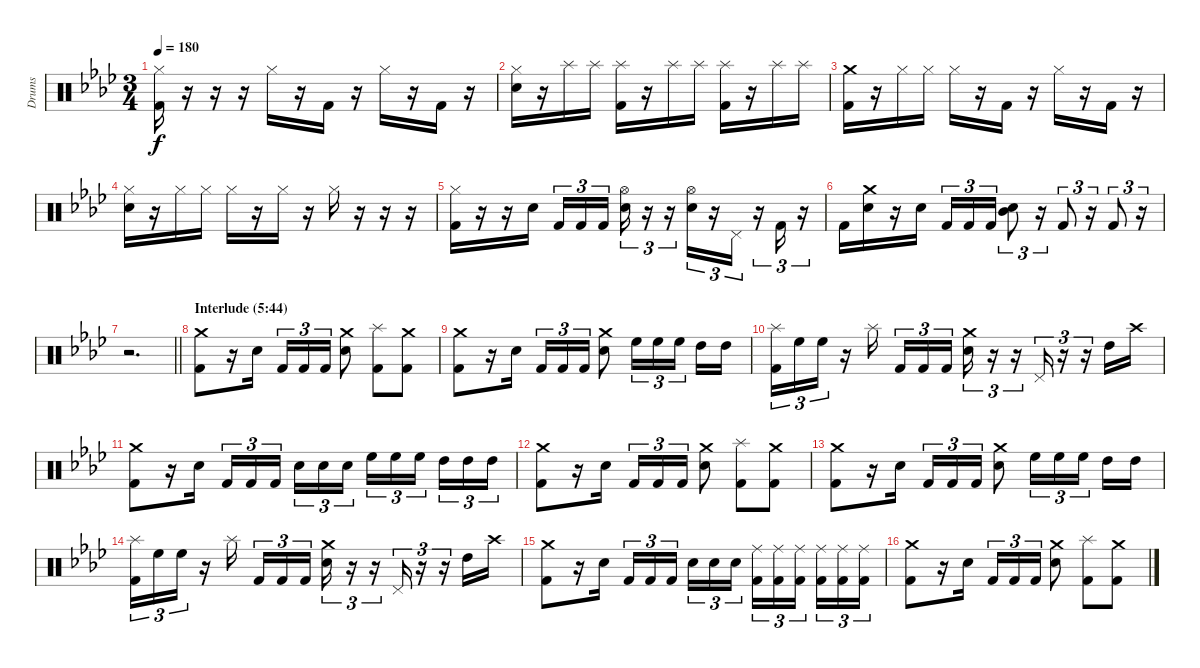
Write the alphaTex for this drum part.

\bracketExtendMode groupsimilarinstruments
\otherSystemsTrackNameOrientation horizontal
\track ("Guyot Begin-Benoit" "Drums") {instrument percussion}
\staff {score}
\articulation defaults
\ts (3 4)
\tempo 180
\clef neutral
\ks ab
("Hi-Hat (closed)"{acc forcenatural} "Kick (hit) 2"{acc forcenatural}).16{dy f beam Down} r.16{beam Down} r.16{beam Down} r.16{beam Down} "Hi-Hat (closed)"{acc forcenatural}.16{beam Down} r.16{beam Down} "Kick (hit) 2"{acc forcenatural}.16{beam Down} r.16{beam Down} "Hi-Hat (closed)"{acc forcenatural}.16{beam Down} r.16{beam Down} "Kick (hit) 2"{acc forcenatural}.16{beam Down} r.16{beam Down} |
("Hi-Hat (closed)"{acc forcenatural} "Snare (hit) 2"{acc forcenatural}).16{beam Down} r.16{beam Down} "Splash (hit)"{acc forcenatural}.16{beam Down} "Splash (hit)"{acc forcenatural}.16{beam Down} ("Splash (hit)"{acc forcenatural} "Kick (hit) 2"{acc forcenatural}).16{beam Down} r.16{beam Down} "Splash (hit)"{acc forcenatural}.16{beam Down} "Splash (hit)"{acc forcenatural}.16{beam Down} ("Splash (hit)"{acc forcenatural} "Kick (hit) 2"{acc forcenatural}).16{beam Down} r.16{beam Down} "Splash (hit)"{acc forcenatural}.16{beam Down} "Splash (hit)"{acc forcenatural}.16{beam Down} |
("Crash medium (hit)"{acc forcenatural} "Kick (hit) 2"{acc forcenatural}).16{beam Down} r.16{beam Down} "Hi-Hat (closed)"{acc forcenatural}.16{beam Down} "Hi-Hat (closed)"{acc forcenatural}.16{beam Down} "Hi-Hat (closed)"{acc forcenatural}.16{beam Down} r.16{beam Down} "Kick (hit) 2"{acc forcenatural}.16{beam Down} r.16{beam Down} "Hi-Hat (closed)"{acc forcenatural}.16{beam Down} r.16{beam Down} "Kick (hit) 2"{acc forcenatural}.16{beam Down} r.16{beam Down} |
("Hi-Hat (closed)"{acc forcenatural} "Snare (hit) 2"{acc forcenatural}).16{beam Down} r.16{beam Down} "Hi-Hat (closed)"{acc forcenatural}.16{beam Down} "Hi-Hat (closed)"{acc forcenatural}.16{beam Down} "Hi-Hat (closed)"{acc forcenatural}.16{beam Down} r.16{beam Down} "Hi-Hat (closed)"{acc forcenatural}.16{beam Down} r.16{beam Down} "Hi-Hat (closed)"{acc forcenatural}.16{beam Down} r.16{beam Down} r.16{beam Down} r.16{beam Down} |
("Hi-Hat (closed)"{acc forcenatural} "Kick (hit) 2"{acc forcenatural}).16{beam Down} r.16{beam Down} r.16{beam Down} "Snare (hit) 2"{acc forcenatural}.16{beam Down} "Kick (hit) 2"{acc forcenatural}.16{tu (3 2) beam Up} "Kick (hit) 2"{acc forcenatural}.16{tu (3 2) beam Up} "Kick (hit) 2"{acc forcenatural}.16{tu (3 2) beam Up} ("Hi-Hat (open)"{acc forcenatural} "Snare (hit) 2"{acc forcenatural}).16{tu (3 2) beam Down} r.16{tu (3 2) beam Down} r.16{tu (3 2) beam Down} ("Hi-Hat (open)"{acc forcenatural} "Snare (hit) 2"{acc forcenatural}).16{tu (3 2) beam Down} r.16{tu (3 2) beam Down} "Pedal Hi-Hat (hit)"{acc forcenatural}.16{tu (3 2) beam Down} r.16{tu (3 2) beam Down} "Kick (hit) 2"{acc forcenatural}.16{tu (3 2) beam Up} r.16{tu (3 2) beam Up} |
"Kick (hit) 2"{acc forcenatural}.16{beam Down} ("Crash medium (hit)"{acc forcenatural} "Snare (hit) 2"{acc forcenatural}).16{beam Down} r.16{beam Down} "Snare (hit) 2"{acc forcenatural}.16{beam Down} "Kick (hit) 2"{acc forcenatural}.16{tu (3 2) beam Up} "Kick (hit) 2"{acc forcenatural}.16{tu (3 2) beam Up} "Kick (hit) 2"{acc forcenatural}.16{tu (3 2) beam Up} ("Mid Tom (hit)"{acc forcenatural} "Snare (hit) 2"{acc forcenatural}).8{tu (3 2) beam Down} r.16{tu (3 2) beam Down} "Kick (hit) 2"{acc forcenatural}.8{tu (3 2) beam Up} r.16{tu (3 2) beam Up} "Kick (hit) 2"{acc forcenatural}.8{tu (3 2) beam Up} r.16{tu (3 2) beam Up} |
\beaming (8 2 2 2)
\barLineRight lightlight
r.2{d beam Down} |
\beaming (8 2 2 2 2)
\section ("" "Interlude (5:44)")
("Crash medium (hit)"{acc forcenatural} "Kick (hit) 2"{acc forcenatural}).8{beam Down} r.16{beam Down} "Snare (hit) 2"{acc forcenatural}.16{beam Down} "Kick (hit) 2"{acc forcenatural}.16{tu (3 2) beam Up} "Kick (hit) 2"{acc forcenatural}.16{tu (3 2) beam Up} "Kick (hit) 2"{acc forcenatural}.16{tu (3 2) beam Up} ("Crash medium (hit)"{acc forcenatural} "Snare (hit) 2"{acc forcenatural}).8{beam Down} ("Splash (hit)"{acc forcenatural} "Kick (hit) 2"{acc forcenatural}).8{beam Down} ("Crash medium (hit)"{acc forcenatural} "Kick (hit) 2"{acc forcenatural}).8{beam Down} |
("Crash medium (hit)"{acc forcenatural} "Kick (hit) 2"{acc forcenatural}).8{beam Down} r.16{beam Down} "Snare (hit) 2"{acc forcenatural}.16{beam Down} "Kick (hit) 2"{acc forcenatural}.16{tu (3 2) beam Up} "Kick (hit) 2"{acc forcenatural}.16{tu (3 2) beam Up} "Kick (hit) 2"{acc forcenatural}.16{tu (3 2) beam Up} ("Crash medium (hit)"{acc forcenatural} "Snare (hit) 2"{acc forcenatural}).8{beam Down} "High Floor Tom (hit)"{acc forcenatural}.16{tu (3 2) beam Down} "High Floor Tom (hit)"{acc forcenatural}.16{tu (3 2) beam Down} "High Floor Tom (hit)"{acc forcenatural}.16{tu (3 2) beam Down} "High Tom (hit)"{acc forcenatural}.16{beam Down} "High Tom (hit)"{acc forcenatural}.16{beam Down} |
("Splash (hit)"{acc forcenatural} "Kick (hit) 2"{acc forcenatural}).16{tu (3 2) beam Down} "High Floor Tom (hit)"{acc forcenatural}.16{tu (3 2) beam Down} "High Floor Tom (hit)"{acc forcenatural}.16{tu (3 2) beam Down} r.16{beam Down} "Splash (hit)"{acc forcenatural}.16{beam Down} "Kick (hit) 2"{acc forcenatural}.16{tu (3 2) beam Up} "Kick (hit) 2"{acc forcenatural}.16{tu (3 2) beam Up} "Kick (hit) 2"{acc forcenatural}.16{tu (3 2) beam Up} ("Crash medium (hit)"{acc forcenatural} "Snare (hit) 2"{acc forcenatural}).16{tu (3 2) beam Down} r.16{tu (3 2) beam Down} r.16{tu (3 2) beam Down} "Pedal Hi-Hat (hit)"{acc forcenatural}.16{tu (3 2) beam Up} r.16{tu (3 2) beam Up} r.16{tu (3 2) beam Up} "High Tom (hit)"{acc forcenatural}.16{beam Down} "Crash high (hit)"{acc forcenatural}.16{beam Down} |
("Crash medium (hit)"{acc forcenatural} "Kick (hit) 2"{acc forcenatural}).8{beam Down} r.16{beam Down} "Snare (hit) 2"{acc forcenatural}.16{beam Down} "Kick (hit) 2"{acc forcenatural}.16{tu (3 2) beam Up} "Kick (hit) 2"{acc forcenatural}.16{tu (3 2) beam Up} "Kick (hit) 2"{acc forcenatural}.16{tu (3 2) beam Up} "Snare (hit) 2"{acc forcenatural}.16{tu (3 2) beam Down} "Snare (hit) 2"{acc forcenatural}.16{tu (3 2) beam Down} "Snare (hit) 2"{acc forcenatural}.16{tu (3 2) beam Down} "High Floor Tom (hit)"{acc forcenatural}.16{tu (3 2) beam Down} "High Floor Tom (hit)"{acc forcenatural}.16{tu (3 2) beam Down} "High Floor Tom (hit)"{acc forcenatural}.16{tu (3 2) beam Down} "High Tom (hit)"{acc forcenatural}.16{tu (3 2) beam Down} "High Tom (hit)"{acc forcenatural}.16{tu (3 2) beam Down} "High Tom (hit)"{acc forcenatural}.16{tu (3 2) beam Down} |
("Crash medium (hit)"{acc forcenatural} "Kick (hit) 2"{acc forcenatural}).8{beam Down} r.16{beam Down} "Snare (hit) 2"{acc forcenatural}.16{beam Down} "Kick (hit) 2"{acc forcenatural}.16{tu (3 2) beam Up} "Kick (hit) 2"{acc forcenatural}.16{tu (3 2) beam Up} "Kick (hit) 2"{acc forcenatural}.16{tu (3 2) beam Up} ("Crash medium (hit)"{acc forcenatural} "Snare (hit) 2"{acc forcenatural}).8{beam Down} ("Splash (hit)"{acc forcenatural} "Kick (hit) 2"{acc forcenatural}).8{beam Down} ("Crash medium (hit)"{acc forcenatural} "Kick (hit) 2"{acc forcenatural}).8{beam Down} |
("Crash medium (hit)"{acc forcenatural} "Kick (hit) 2"{acc forcenatural}).8{beam Down} r.16{beam Down} "Snare (hit) 2"{acc forcenatural}.16{beam Down} "Kick (hit) 2"{acc forcenatural}.16{tu (3 2) beam Up} "Kick (hit) 2"{acc forcenatural}.16{tu (3 2) beam Up} "Kick (hit) 2"{acc forcenatural}.16{tu (3 2) beam Up} ("Crash medium (hit)"{acc forcenatural} "Snare (hit) 2"{acc forcenatural}).8{beam Down} "High Floor Tom (hit)"{acc forcenatural}.16{tu (3 2) beam Down} "High Floor Tom (hit)"{acc forcenatural}.16{tu (3 2) beam Down} "High Floor Tom (hit)"{acc forcenatural}.16{tu (3 2) beam Down} "High Tom (hit)"{acc forcenatural}.16{beam Down} "High Tom (hit)"{acc forcenatural}.16{beam Down} |
("Splash (hit)"{acc forcenatural} "Kick (hit) 2"{acc forcenatural}).16{tu (3 2) beam Down} "High Floor Tom (hit)"{acc forcenatural}.16{tu (3 2) beam Down} "High Floor Tom (hit)"{acc forcenatural}.16{tu (3 2) beam Down} r.16{beam Down} "Splash (hit)"{acc forcenatural}.16{beam Down} "Kick (hit) 2"{acc forcenatural}.16{tu (3 2) beam Up} "Kick (hit) 2"{acc forcenatural}.16{tu (3 2) beam Up} "Kick (hit) 2"{acc forcenatural}.16{tu (3 2) beam Up} ("Crash medium (hit)"{acc forcenatural} "Snare (hit) 2"{acc forcenatural}).16{tu (3 2) beam Down} r.16{tu (3 2) beam Down} r.16{tu (3 2) beam Down} "Pedal Hi-Hat (hit)"{acc forcenatural}.16{tu (3 2) beam Up} r.16{tu (3 2) beam Up} r.16{tu (3 2) beam Up} "High Tom (hit)"{acc forcenatural}.16{beam Down} "Crash high (hit)"{acc forcenatural}.16{beam Down} |
("Crash medium (hit)"{acc forcenatural} "Kick (hit) 2"{acc forcenatural}).8{beam Down} r.16{beam Down} "Snare (hit) 2"{acc forcenatural}.16{beam Down} "Kick (hit) 2"{acc forcenatural}.16{tu (3 2) beam Up} "Kick (hit) 2"{acc forcenatural}.16{tu (3 2) beam Up} "Kick (hit) 2"{acc forcenatural}.16{tu (3 2) beam Up} "Snare (hit) 2"{acc forcenatural}.16{tu (3 2) beam Down} "Snare (hit) 2"{acc forcenatural}.16{tu (3 2) beam Down} "Snare (hit) 2"{acc forcenatural}.16{tu (3 2) beam Down} ("Ride (middle)"{acc forcenatural} "Kick (hit) 2"{acc forcenatural}).16{tu (3 2) beam Down} ("Ride (middle)"{acc forcenatural} "Kick (hit) 2"{acc forcenatural}).16{tu (3 2) beam Down} ("Ride (middle)"{acc forcenatural} "Kick (hit) 2"{acc forcenatural}).16{tu (3 2) beam Down} ("Ride (middle)"{acc forcenatural} "Kick (hit) 2"{acc forcenatural}).16{tu (3 2) beam Down} ("Ride (middle)"{acc forcenatural} "Kick (hit) 2"{acc forcenatural}).16{tu (3 2) beam Down} ("Ride (middle)"{acc forcenatural} "Kick (hit) 2"{acc forcenatural}).16{tu (3 2) beam Down} |
("Crash medium (hit)"{acc forcenatural} "Kick (hit) 2"{acc forcenatural}).8{beam Down} r.16{beam Down} "Snare (hit) 2"{acc forcenatural}.16{beam Down} "Kick (hit) 2"{acc forcenatural}.16{tu (3 2) beam Up} "Kick (hit) 2"{acc forcenatural}.16{tu (3 2) beam Up} "Kick (hit) 2"{acc forcenatural}.16{tu (3 2) beam Up} ("Crash medium (hit)"{acc forcenatural} "Snare (hit) 2"{acc forcenatural}).8{beam Down} ("Splash (hit)"{acc forcenatural} "Kick (hit) 2"{acc forcenatural}).8{beam Down} ("Crash medium (hit)"{acc forcenatural} "Kick (hit) 2"{acc forcenatural}).8{beam Down}
